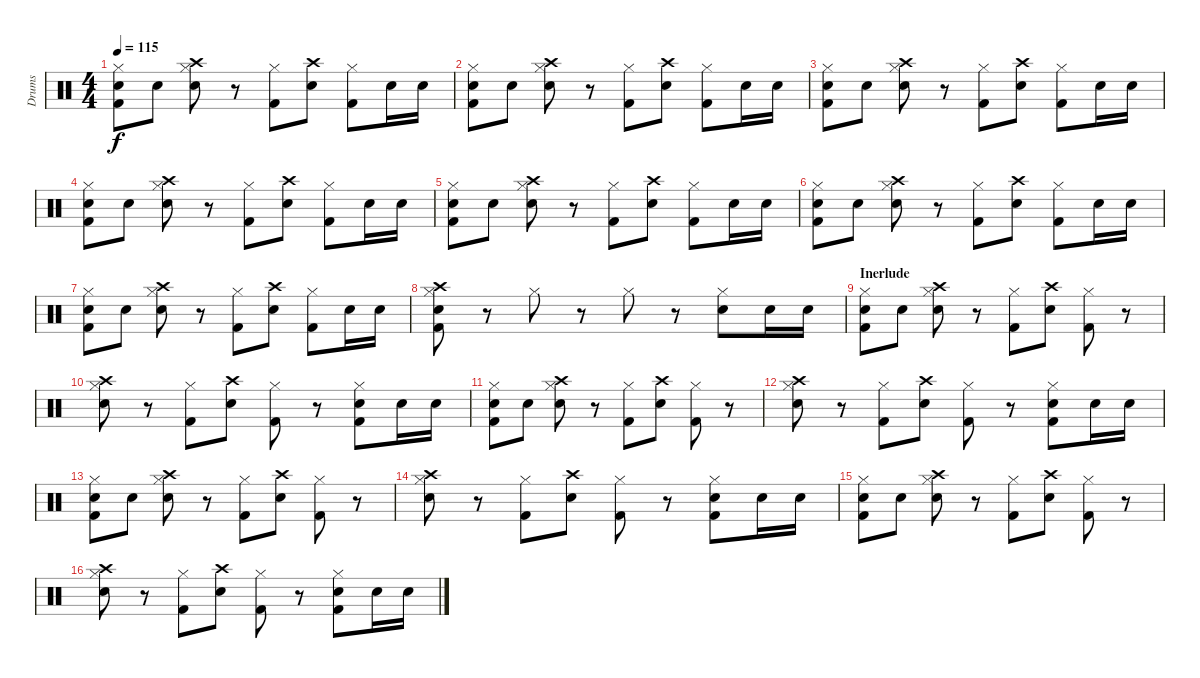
\track ("Drums" "Drums") {instrument percussion}
\staff {score}
\articulation defaults
\ts (4 4)
\tempo 115
\clef neutral
\ks c
("Hi-Hat (closed)" "Kick (hit) 2" "Snare (hit) 2").8{dy f} "Snare (hit) 2".8 ("Hi-Hat (closed)" "Crash high (hit)" "Snare (hit) 2").8 r.8 ("Hi-Hat (closed)" "Kick (hit) 2").8 ("Crash high (hit)" "Snare (hit) 2").8 ("Hi-Hat (closed)" "Kick (hit) 2").8 "Snare (hit) 2".16 "Snare (hit) 2".16 |
("Hi-Hat (closed)" "Kick (hit) 2" "Snare (hit) 2").8 "Snare (hit) 2".8 ("Hi-Hat (closed)" "Crash high (hit)" "Snare (hit) 2").8 r.8 ("Hi-Hat (closed)" "Kick (hit) 2").8 ("Crash high (hit)" "Snare (hit) 2").8 ("Hi-Hat (closed)" "Kick (hit) 2").8 "Snare (hit) 2".16 "Snare (hit) 2".16 |
("Hi-Hat (closed)" "Kick (hit) 2" "Snare (hit) 2").8 "Snare (hit) 2".8 ("Hi-Hat (closed)" "Crash high (hit)" "Snare (hit) 2").8 r.8 ("Hi-Hat (closed)" "Kick (hit) 2").8 ("Crash high (hit)" "Snare (hit) 2").8 ("Hi-Hat (closed)" "Kick (hit) 2").8 "Snare (hit) 2".16 "Snare (hit) 2".16 |
("Hi-Hat (closed)" "Kick (hit) 2" "Snare (hit) 2").8 "Snare (hit) 2".8 ("Hi-Hat (closed)" "Crash high (hit)" "Snare (hit) 2").8 r.8 ("Hi-Hat (closed)" "Kick (hit) 2").8 ("Crash high (hit)" "Snare (hit) 2").8 ("Hi-Hat (closed)" "Kick (hit) 2").8 "Snare (hit) 2".16 "Snare (hit) 2".16 |
("Hi-Hat (closed)" "Kick (hit) 2" "Snare (hit) 2").8 "Snare (hit) 2".8 ("Hi-Hat (closed)" "Crash high (hit)" "Snare (hit) 2").8 r.8 ("Hi-Hat (closed)" "Kick (hit) 2").8 ("Crash high (hit)" "Snare (hit) 2").8 ("Hi-Hat (closed)" "Kick (hit) 2").8 "Snare (hit) 2".16 "Snare (hit) 2".16 |
("Hi-Hat (closed)" "Kick (hit) 2" "Snare (hit) 2").8 "Snare (hit) 2".8 ("Hi-Hat (closed)" "Crash high (hit)" "Snare (hit) 2").8 r.8 ("Hi-Hat (closed)" "Kick (hit) 2").8 ("Crash high (hit)" "Snare (hit) 2").8 ("Hi-Hat (closed)" "Kick (hit) 2").8 "Snare (hit) 2".16 "Snare (hit) 2".16 |
("Hi-Hat (closed)" "Kick (hit) 2" "Snare (hit) 2").8 "Snare (hit) 2".8 ("Hi-Hat (closed)" "Crash high (hit)" "Snare (hit) 2").8 r.8 ("Hi-Hat (closed)" "Kick (hit) 2").8 ("Crash high (hit)" "Snare (hit) 2").8 ("Hi-Hat (closed)" "Kick (hit) 2").8 "Snare (hit) 2".16 "Snare (hit) 2".16 |
("Hi-Hat (closed)" "Kick (hit) 2" "Snare (hit) 2" "Crash high (hit)").8 r.8 "Hi-Hat (closed)".8 r.8 "Hi-Hat (closed)".8 r.8 ("Hi-Hat (closed)" "Snare (hit) 2").8 "Snare (hit) 2".16 "Snare (hit) 2".16 |
\section ("" "Inerlude")
("Hi-Hat (closed)" "Kick (hit) 2" "Snare (hit) 2").8 "Snare (hit) 2".8 ("Hi-Hat (closed)" "Crash high (hit)" "Snare (hit) 2").8 r.8 ("Hi-Hat (closed)" "Kick (hit) 2").8 ("Crash high (hit)" "Snare (hit) 2").8 ("Hi-Hat (closed)" "Kick (hit) 2").8 r.8 |
("Hi-Hat (closed)" "Crash high (hit)" "Snare (hit) 2").8 r.8 ("Hi-Hat (closed)" "Kick (hit) 2").8 ("Crash high (hit)" "Snare (hit) 2").8 ("Hi-Hat (closed)" "Kick (hit) 2").8 r.8 ("Hi-Hat (closed)" "Kick (hit) 2" "Snare (hit) 2").8 "Snare (hit) 2".16 "Snare (hit) 2".16 |
("Hi-Hat (closed)" "Kick (hit) 2" "Snare (hit) 2").8 "Snare (hit) 2".8 ("Hi-Hat (closed)" "Crash high (hit)" "Snare (hit) 2").8 r.8 ("Hi-Hat (closed)" "Kick (hit) 2").8 ("Crash high (hit)" "Snare (hit) 2").8 ("Hi-Hat (closed)" "Kick (hit) 2").8 r.8 |
("Hi-Hat (closed)" "Crash high (hit)" "Snare (hit) 2").8 r.8 ("Hi-Hat (closed)" "Kick (hit) 2").8 ("Crash high (hit)" "Snare (hit) 2").8 ("Hi-Hat (closed)" "Kick (hit) 2").8 r.8 ("Hi-Hat (closed)" "Kick (hit) 2" "Snare (hit) 2").8 "Snare (hit) 2".16 "Snare (hit) 2".16 |
("Hi-Hat (closed)" "Kick (hit) 2" "Snare (hit) 2").8 "Snare (hit) 2".8 ("Hi-Hat (closed)" "Crash high (hit)" "Snare (hit) 2").8 r.8 ("Hi-Hat (closed)" "Kick (hit) 2").8 ("Crash high (hit)" "Snare (hit) 2").8 ("Hi-Hat (closed)" "Kick (hit) 2").8 r.8 |
("Hi-Hat (closed)" "Crash high (hit)" "Snare (hit) 2").8 r.8 ("Hi-Hat (closed)" "Kick (hit) 2").8 ("Crash high (hit)" "Snare (hit) 2").8 ("Hi-Hat (closed)" "Kick (hit) 2").8 r.8 ("Hi-Hat (closed)" "Kick (hit) 2" "Snare (hit) 2").8 "Snare (hit) 2".16 "Snare (hit) 2".16 |
("Hi-Hat (closed)" "Kick (hit) 2" "Snare (hit) 2").8 "Snare (hit) 2".8 ("Hi-Hat (closed)" "Crash high (hit)" "Snare (hit) 2").8 r.8 ("Hi-Hat (closed)" "Kick (hit) 2").8 ("Crash high (hit)" "Snare (hit) 2").8 ("Hi-Hat (closed)" "Kick (hit) 2").8 r.8 |
("Hi-Hat (closed)" "Crash high (hit)" "Snare (hit) 2").8 r.8 ("Hi-Hat (closed)" "Kick (hit) 2").8 ("Crash high (hit)" "Snare (hit) 2").8 ("Hi-Hat (closed)" "Kick (hit) 2").8 r.8 ("Hi-Hat (closed)" "Kick (hit) 2" "Snare (hit) 2").8 "Snare (hit) 2".16 "Snare (hit) 2".16
